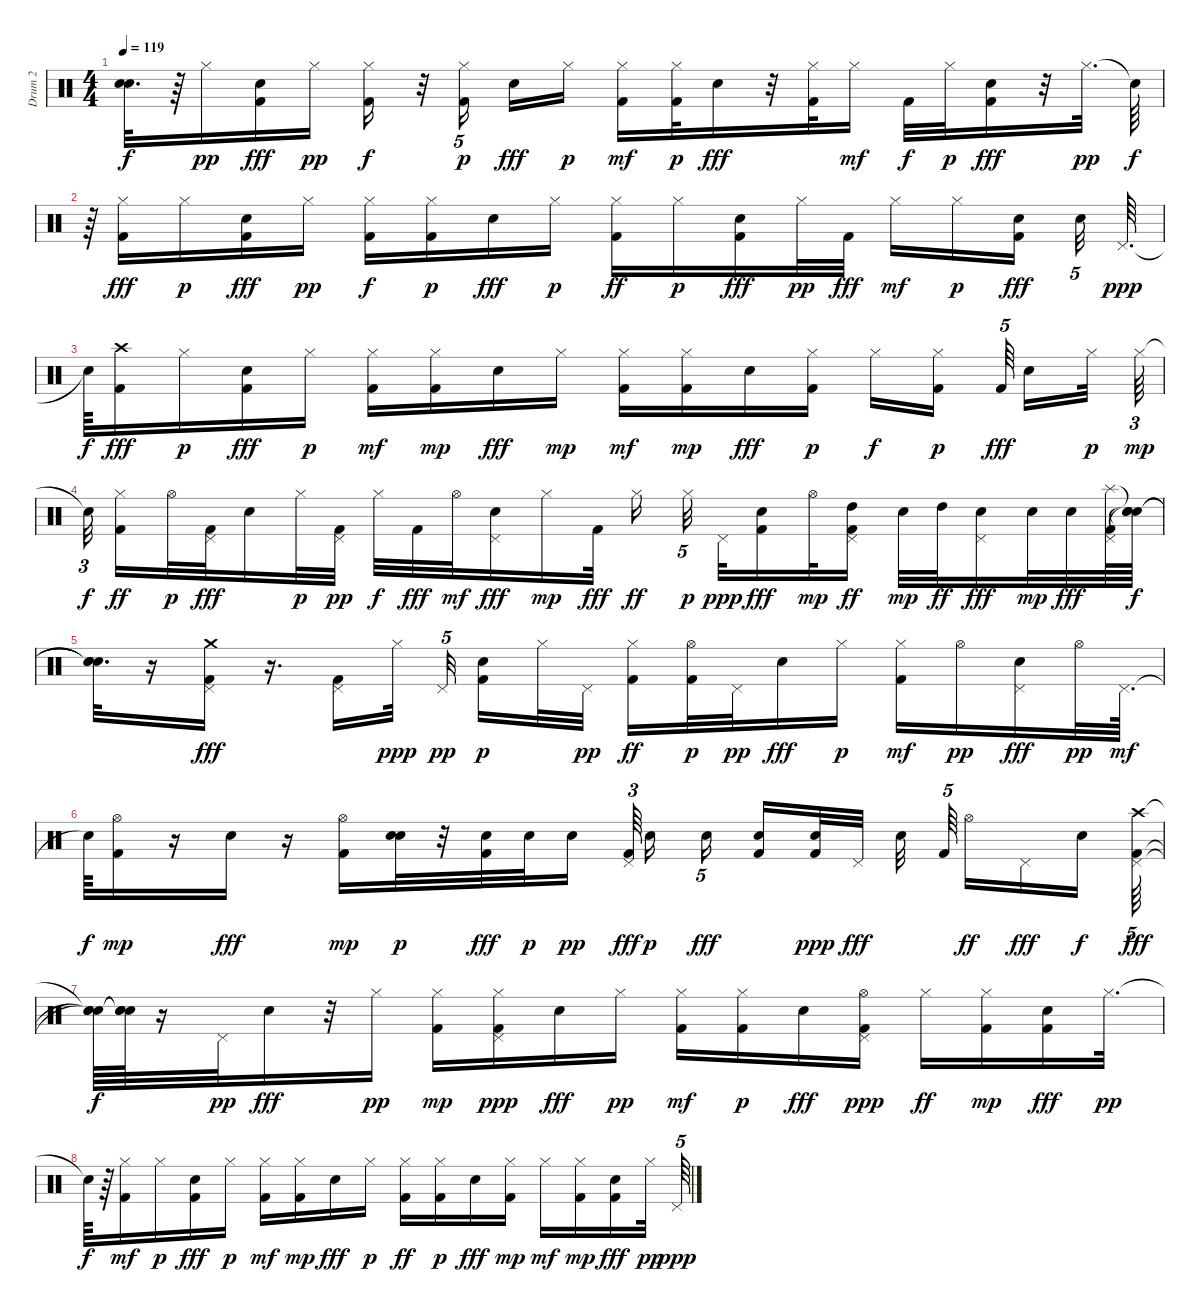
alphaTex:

\track ("Drum 2                          " "Drum 2    ") {instrument percussion}
\staff {score}
\articulation defaults
\ts (4 4)
\tempo 119
\clef neutral
\ks c
("Snare (hit)"{t} "Snare (hit)"{t}).32{d dy f} r.64 "Hi-Hat (closed)".16{dy pp} ("Kick (hit) 2" "Snare (hit) 2").16{dy fff} "Hi-Hat (closed)".16{dy pp} ("Kick (hit) 2" "Hi-Hat (closed)").16{dy f} r.32 ("Kick (hit) 2" "Hi-Hat (closed)").16{tu (5 4) dy p beam splitsecondary} "Snare (hit) 2".16{dy fff} "Hi-Hat (closed)".16{dy p} ("Hi-Hat (closed)" "Kick (hit) 2").16{dy mf} ("Kick (hit) 2" "Hi-Hat (closed)").32{dy p} "Snare (hit) 2".16{dy fff} r.32 ("Hi-Hat (closed)" "Kick (hit) 2").32 "Hi-Hat (closed)".16{dy mf} "Kick (hit) 2".32{dy f} "Hi-Hat (closed)".32{dy p} ("Kick (hit) 2" "Snare (hit) 2").16{dy fff} r.32 "Hi-Hat (closed)".32{d dy pp} "Snare (hit)"{t}.64{dy f} |
r.64 ("Kick (hit) 2" "Hi-Hat (closed)").16{dy fff} "Hi-Hat (closed)".16{dy p} ("Kick (hit) 2" "Snare (hit) 2").16{dy fff} "Hi-Hat (closed)".16{dy pp} ("Kick (hit) 2" "Hi-Hat (closed)").16{dy f} ("Kick (hit) 2" "Hi-Hat (closed)").16{dy p} "Snare (hit) 2".16{dy fff} "Hi-Hat (closed)".16{dy p} ("Kick (hit) 2" "Hi-Hat (closed)").16{dy ff} "Hi-Hat (closed)".16{dy p} ("Snare (hit) 2" "Kick (hit) 2").16{dy fff} "Hi-Hat (closed)".32{dy pp} "Kick (hit) 2".32{dy fff} "Hi-Hat (closed)".16{dy mf} "Hi-Hat (closed)".16{dy p} ("Kick (hit) 2" "Snare (hit) 2").16{dy fff beam splitsecondary} "Snare (hit) 2".32{tu (5 4)} "Pedal Hi-Hat (hit)".64{d dy ppp} |
"Snare (hit)"{t}.64{dy f} ("Kick (hit) 2" "Crash high (hit)").16{dy fff} "Hi-Hat (closed)".16{dy p} ("Kick (hit) 2" "Snare (hit) 2").16{dy fff} "Hi-Hat (closed)".16{dy p} ("Kick (hit) 2" "Hi-Hat (closed)").16{dy mf} ("Kick (hit) 2" "Hi-Hat (closed)").16{dy mp} "Snare (hit) 2".16{dy fff} "Hi-Hat (closed)".16{dy mp} ("Kick (hit) 2" "Hi-Hat (closed)").16{dy mf} ("Kick (hit) 2" "Hi-Hat (closed)").16{dy mp} "Snare (hit) 2".16{dy fff} ("Kick (hit) 2" "Hi-Hat (closed)").16{dy p} "Hi-Hat (closed)".16{dy f} ("Kick (hit) 2" "Hi-Hat (closed)").16{dy p beam splitsecondary} "Kick (hit) 2".64{tu (5 4) dy fff beam splitsecondary} "Snare (hit) 2".16 "Hi-Hat (closed)".32{dy p} "Hi-Hat (closed)".64{tu (3 2) dy mp} |
"Snare (hit)"{t}.32{tu (3 2) dy f beam splitsecondary} ("Kick (hit) 2" "Hi-Hat (closed)").16{dy ff} "Hi-Hat (open)".32{dy p} ("Pedal Hi-Hat (hit)" "Kick (hit) 2").32{dy fff} "Snare (hit) 2".16 "Hi-Hat (closed)".32{dy p} ("Pedal Hi-Hat (hit)" "Kick (hit) 2").32{dy pp} "Hi-Hat (closed)".32{dy f} "Kick (hit) 2".32{dy fff} "Hi-Hat (open)".32{dy mf} ("Pedal Hi-Hat (hit)" "Snare (hit) 2").16{dy fff} "Hi-Hat (closed)".16{dy mp} "Kick (hit) 2".32{dy fff} "Hi-Hat (closed)".16{dy ff beam splitsecondary} "Hi-Hat (closed)".32{tu (5 4) dy p beam splitsecondary} "Pedal Hi-Hat (hit)".32{dy ppp} ("Electric Snare (hit)" "Kick (hit) 2").16{dy fff} "Hi-Hat (open)".32{dy mp} ("Kick (hit) 2" "Pedal Hi-Hat (hit)" "High Tom (hit)").16{dy ff} "Snare (hit) 2".32{dy mp} "High Tom (hit)".32{dy ff} ("Pedal Hi-Hat (hit)" "Snare (hit) 2").16{dy fff} "Snare (hit) 2".32{dy mp} "Snare (hit) 2".32{dy fff} ("Splash (hit)" "Pedal Hi-Hat (hit)" "Kick (hit) 2").64 ("Snare (hit)"{t} "Snare (hit)"{t} "Snare (hit)"{t}).64{dy f} |
("Snare (hit)"{t} "Snare (hit)"{t} "Snare (hit)"{t}).32{d} r.16 ("Crash medium (hit)" "Kick (hit) 2" "Pedal Hi-Hat (hit)").16{dy fff} r.16{d} ("Pedal Hi-Hat (hit)" "Kick (hit) 2").16 "Hi-Hat (closed)".32{dy ppp beam splitsecondary} "Pedal Hi-Hat (hit)".32{tu (5 4) dy pp beam splitsecondary} ("Snare (hit) 2" "Kick (hit) 2").16{dy p} "Hi-Hat (closed)".32 "Pedal Hi-Hat (hit)".32{dy pp} ("Kick (hit) 2" "Hi-Hat (closed)").16{dy ff} ("Kick (hit) 2" "Hi-Hat (open)").32{dy p} "Pedal Hi-Hat (hit)".32{dy pp} "Snare (hit) 2".16{dy fff} "Hi-Hat (closed)".16{dy p} ("Kick (hit) 2" "Hi-Hat (closed)").16{dy mf} "Hi-Hat (open)".16{dy pp} ("Pedal Hi-Hat (hit)" "Electric Snare (hit)").16{dy fff} "Hi-Hat (open)".32{dy pp} "Pedal Hi-Hat (hit)".64{d dy mf} |
"Snare (hit)"{t}.64{dy f} ("Kick (hit) 2" "Hi-Hat (open)").16{dy mp} r.16 "Snare (hit) 2".16{dy fff} r.16 ("Kick (hit) 2" "Hi-Hat (open)").16{dy mp} ("Snare (hit) 2" "Snare (hit) 2").32{dy p} r.32 ("Snare (hit) 2" "Kick (hit) 2").32{dy fff} "Snare (hit) 2".32{dy p} "Snare (hit) 2".16{dy pp} ("Kick (hit) 2" "Pedal Hi-Hat (hit)").64{tu (3 2) dy fff beam splitsecondary} "Snare (hit) 2".16{dy p beam splitsecondary} "Electric Snare (hit)".16{tu (5 4) dy fff beam splitsecondary} ("Kick (hit) 2" "Snare (hit) 2").16 ("Electric Snare (hit)" "Kick (hit) 2").32{dy ppp} "Pedal Hi-Hat (hit)".32{dy fff} "Snare (hit) 2".32{beam splitsecondary} "Kick (hit) 2".64{tu (5 4) beam splitsecondary} "Hi-Hat (open)".16{dy ff} "Pedal Hi-Hat (hit)".16{dy fff} "Electric Snare (hit)".16{dy f beam splitsecondary} ("Pedal Hi-Hat (hit)" "Crash high (hit)" "Kick (hit) 2").64{tu (5 4) dy fff} |
("Snare (hit)"{t} "Snare (hit)"{t} "Snare (hit)"{t}).64{dy f} ("Snare (hit)"{t} "Snare (hit)"{t} "Snare (hit)"{t}).64 r.16 "Pedal Hi-Hat (hit)".32{dy pp} "Snare (hit) 2".16{dy fff} r.32 "Hi-Hat (closed)".16{dy pp} ("Kick (hit) 2" "Hi-Hat (closed)").16{dy mp} ("Kick (hit) 2" "Hi-Hat (closed)" "Pedal Hi-Hat (hit)").16{dy ppp} "Snare (hit) 2".16{dy fff} "Hi-Hat (closed)".16{dy pp} ("Kick (hit) 2" "Hi-Hat (closed)").16{dy mf} ("Kick (hit) 2" "Hi-Hat (closed)").16{dy p} "Snare (hit) 2".16{dy fff} ("Kick (hit) 2" "Hi-Hat (open)" "Pedal Hi-Hat (hit)").16{dy ppp} "Hi-Hat (closed)".16{dy ff} ("Kick (hit) 2" "Hi-Hat (closed)").16{dy mp} ("Kick (hit) 2" "Snare (hit) 2").16{dy fff} "Hi-Hat (closed)".32{d dy pp} |
"Snare (hit)"{t}.64{dy f} r.64 ("Kick (hit) 2" "Hi-Hat (closed)").16{dy mf} "Hi-Hat (closed)".16{dy p} ("Kick (hit) 2" "Snare (hit) 2").16{dy fff} "Hi-Hat (closed)".16{dy p} ("Kick (hit) 2" "Hi-Hat (closed)").16{dy mf} ("Kick (hit) 2" "Hi-Hat (closed)").16{dy mp} "Snare (hit) 2".16{dy fff} "Hi-Hat (closed)".16{dy p} ("Kick (hit) 2" "Hi-Hat (closed)").16{dy ff} ("Kick (hit) 2" "Hi-Hat (closed)").16{dy p} "Snare (hit) 2".16{dy fff} ("Kick (hit) 2" "Hi-Hat (closed)").16{dy mp} "Hi-Hat (closed)".16{dy mf} ("Kick (hit) 2" "Hi-Hat (closed)").16{dy mp} ("Kick (hit) 2" "Snare (hit) 2").16{dy fff} "Hi-Hat (closed)".32{dy pp} "Pedal Hi-Hat (hit)".64{tu (5 4) dy ppp}
